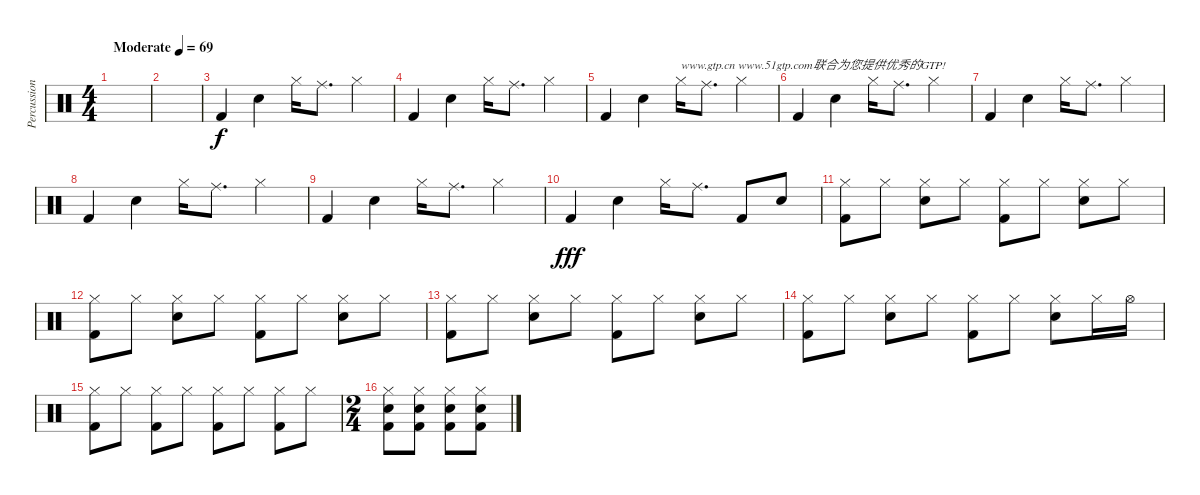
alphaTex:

\track ("Percussion" "Percussion") {instrument percussion}
\staff {score}
\articulation defaults
\ts (4 4)
\tempo (69 "Moderate")
\clef neutral
\ks c
|
|
"Kick (hit) 2".4 "Snare (hit) 2".4 "Hi-Hat (closed)".16 "Ride (middle)".8{d} "Hi-Hat (closed)".4 |
"Kick (hit) 2".4 "Snare (hit) 2".4 "Hi-Hat (closed)".16 "Ride (middle)".8{d} "Hi-Hat (closed)".4 |
"Kick (hit) 2".4 "Snare (hit) 2".4 "Hi-Hat (closed)".16{txt "www.gtp.cn www.51gtp.com联合为您提供优秀的GTP!"} "Ride (middle)".8{d} "Hi-Hat (closed)".4 |
"Kick (hit) 2".4 "Snare (hit) 2".4 "Hi-Hat (closed)".16 "Ride (middle)".8{d} "Hi-Hat (closed)".4 |
"Kick (hit) 2".4 "Snare (hit) 2".4 "Hi-Hat (closed)".16 "Ride (middle)".8{d} "Hi-Hat (closed)".4 |
"Kick (hit) 2".4 "Snare (hit) 2".4 "Hi-Hat (closed)".16 "Ride (middle)".8{d} "Hi-Hat (closed)".4 |
"Kick (hit) 2".4 "Snare (hit) 2".4 "Hi-Hat (closed)".16 "Ride (middle)".8{d} "Hi-Hat (closed)".4 |
"Kick (hit) 2".4{dy fff} "Snare (hit) 2".4 "Hi-Hat (closed)".16 "Ride (middle)".8{d} "Kick (hit) 2".8 "Snare (hit) 2".8 |
("Hi-Hat (closed)" "Kick (hit) 2").8 "Hi-Hat (closed)".8 ("Hi-Hat (closed)" "Snare (hit) 2").8 "Hi-Hat (closed)".8 ("Hi-Hat (closed)" "Kick (hit) 2").8 "Hi-Hat (closed)".8 ("Hi-Hat (closed)" "Snare (hit) 2").8 "Hi-Hat (closed)".8 |
("Hi-Hat (closed)" "Kick (hit) 2").8 "Hi-Hat (closed)".8 ("Hi-Hat (closed)" "Snare (hit) 2").8 "Hi-Hat (closed)".8 ("Hi-Hat (closed)" "Kick (hit) 2").8 "Hi-Hat (closed)".8 ("Hi-Hat (closed)" "Snare (hit) 2").8 "Hi-Hat (closed)".8 |
("Hi-Hat (closed)" "Kick (hit) 2").8 "Hi-Hat (closed)".8 ("Hi-Hat (closed)" "Snare (hit) 2").8 "Hi-Hat (closed)".8 ("Hi-Hat (closed)" "Kick (hit) 2").8 "Hi-Hat (closed)".8 ("Hi-Hat (closed)" "Snare (hit) 2").8 "Hi-Hat (closed)".8 |
("Hi-Hat (closed)" "Kick (hit) 2").8 "Hi-Hat (closed)".8 ("Hi-Hat (closed)" "Snare (hit) 2").8 "Hi-Hat (closed)".8 ("Hi-Hat (closed)" "Kick (hit) 2").8 "Hi-Hat (closed)".8 ("Hi-Hat (closed)" "Snare (hit) 2").8 "Hi-Hat (closed)".16 "Hi-Hat (open)".16 |
("Hi-Hat (closed)" "Kick (hit) 2").8 "Hi-Hat (closed)".8 ("Hi-Hat (closed)" "Kick (hit) 2").8 "Hi-Hat (closed)".8 ("Hi-Hat (closed)" "Kick (hit) 2").8 "Hi-Hat (closed)".8 ("Hi-Hat (closed)" "Kick (hit) 2").8 "Hi-Hat (closed)".8 |
\ts (2 4)
("Hi-Hat (closed)" "Snare (hit) 2" "Kick (hit) 2").8 ("Hi-Hat (closed)" "Snare (hit) 2" "Kick (hit) 2").8 ("Hi-Hat (closed)" "Snare (hit) 2" "Kick (hit) 2").8 ("Hi-Hat (closed)" "Snare (hit) 2" "Kick (hit) 2").8
